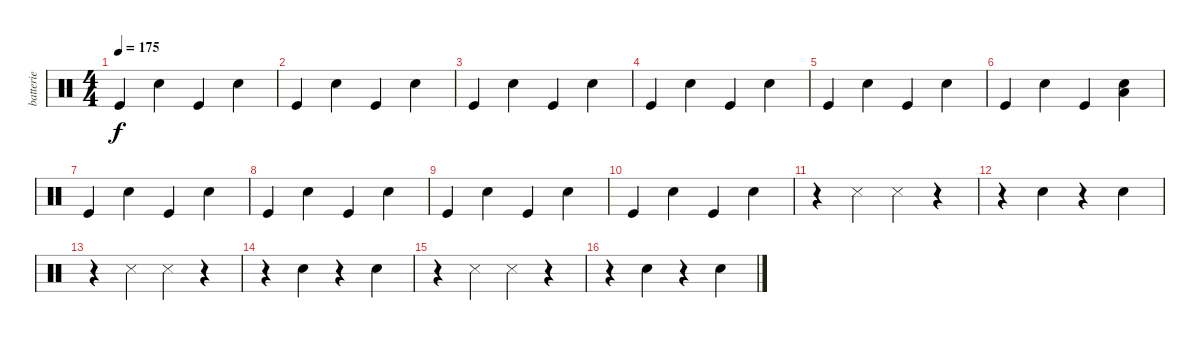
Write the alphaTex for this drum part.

\track ("batterie" "batterie") {instrument percussion}
\staff {score}
\articulation defaults
\ts (4 4)
\tempo 175
\clef neutral
\ks c "Kick (hit)".4{dy f} "Snare (hit) 2".4 "Kick (hit)".4 "Snare (hit) 2".4
|
"Kick (hit)".4 "Snare (hit) 2".4 "Kick (hit)".4 "Snare (hit) 2".4 |
"Kick (hit)".4 "Snare (hit) 2".4 "Kick (hit)".4 "Snare (hit) 2".4 |
"Kick (hit)".4 "Snare (hit) 2".4 "Kick (hit)".4 "Snare (hit) 2".4 |
"Kick (hit)".4 "Snare (hit) 2".4 "Kick (hit)".4 "Snare (hit) 2".4 |
"Kick (hit)".4 "Snare (hit) 2".4 "Kick (hit)".4 ("Low Floor Tom (hit)" "Snare (hit) 2").4 |
"Kick (hit)".4 "Snare (hit) 2".4 "Kick (hit)".4 "Snare (hit) 2".4 |
"Kick (hit)".4 "Snare (hit) 2".4 "Kick (hit)".4 "Snare (hit) 2".4 |
"Kick (hit)".4 "Snare (hit) 2".4 "Kick (hit)".4 "Snare (hit) 2".4 |
"Kick (hit)".4 "Snare (hit) 2".4 "Kick (hit)".4 "Snare (hit) 2".4 |
r.4 "Snare (side stick) 3".4 "Snare (side stick) 3".4 r.4 |
r.4 "Snare (hit) 2".4 r.4 "Snare (hit) 2".4 |
r.4 "Snare (side stick) 3".4 "Snare (side stick) 3".4 r.4 |
r.4 "Snare (hit) 2".4 r.4 "Snare (hit) 2".4 |
r.4 "Snare (side stick) 3".4 "Snare (side stick) 3".4 r.4 |
r.4 "Snare (hit) 2".4 r.4 "Snare (hit) 2".4
